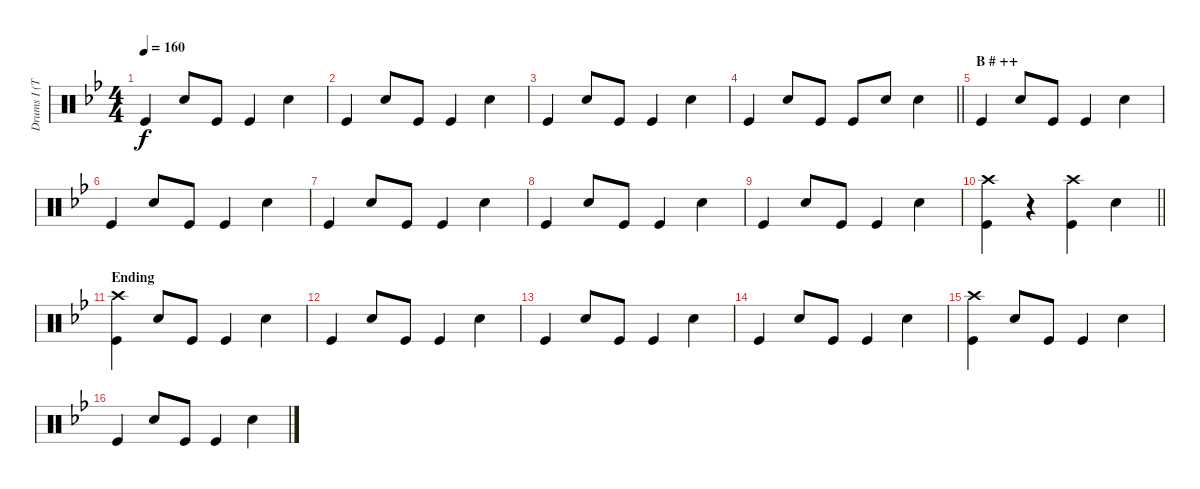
\track ("Drums I (Tainaka Ritsu)" "Drums I (T") {instrument percussion}
\staff {score}
\articulation defaults
\ts (4 4)
\tempo 160
\clef neutral
\ks bb "Kick (hit)".4{dy f} "Snare (hit) 2".8 "Kick (hit)".8 "Kick (hit)".4 "Snare (hit) 2".4
|
"Kick (hit)".4 "Snare (hit) 2".8 "Kick (hit)".8 "Kick (hit)".4 "Snare (hit) 2".4 |
"Kick (hit)".4 "Snare (hit) 2".8 "Kick (hit)".8 "Kick (hit)".4 "Snare (hit) 2".4 |
\barLineRight lightlight "Kick (hit)".4 "Snare (hit) 2".8 "Kick (hit)".8 "Kick (hit)".8 "Snare (hit) 2".8 "Snare (hit) 2".4
|
\section ("" "B # ++")
"Kick (hit)".4 "Snare (hit) 2".8 "Kick (hit)".8 "Kick (hit)".4 "Snare (hit) 2".4 |
"Kick (hit)".4 "Snare (hit) 2".8 "Kick (hit)".8 "Kick (hit)".4 "Snare (hit) 2".4 |
"Kick (hit)".4 "Snare (hit) 2".8 "Kick (hit)".8 "Kick (hit)".4 "Snare (hit) 2".4 |
"Kick (hit)".4 "Snare (hit) 2".8 "Kick (hit)".8 "Kick (hit)".4 "Snare (hit) 2".4 |
"Kick (hit)".4 "Snare (hit) 2".8 "Kick (hit)".8 "Kick (hit)".4 "Snare (hit) 2".4 |
\barLineRight lightlight
("Crash high (hit)" "Kick (hit)").4 r.4 ("Crash high (hit)" "Kick (hit)").4 "Snare (hit) 2".4 |
\section ("" "Ending")
("Crash high (hit)" "Kick (hit)").4 "Snare (hit) 2".8 "Kick (hit)".8 "Kick (hit)".4 "Snare (hit) 2".4 |
"Kick (hit)".4 "Snare (hit) 2".8 "Kick (hit)".8 "Kick (hit)".4 "Snare (hit) 2".4 |
"Kick (hit)".4 "Snare (hit) 2".8 "Kick (hit)".8 "Kick (hit)".4 "Snare (hit) 2".4 |
"Kick (hit)".4 "Snare (hit) 2".8 "Kick (hit)".8 "Kick (hit)".4 "Snare (hit) 2".4 |
("Crash high (hit)" "Kick (hit)").4 "Snare (hit) 2".8 "Kick (hit)".8 "Kick (hit)".4 "Snare (hit) 2".4 |
"Kick (hit)".4 "Snare (hit) 2".8 "Kick (hit)".8 "Kick (hit)".4 "Snare (hit) 2".4
